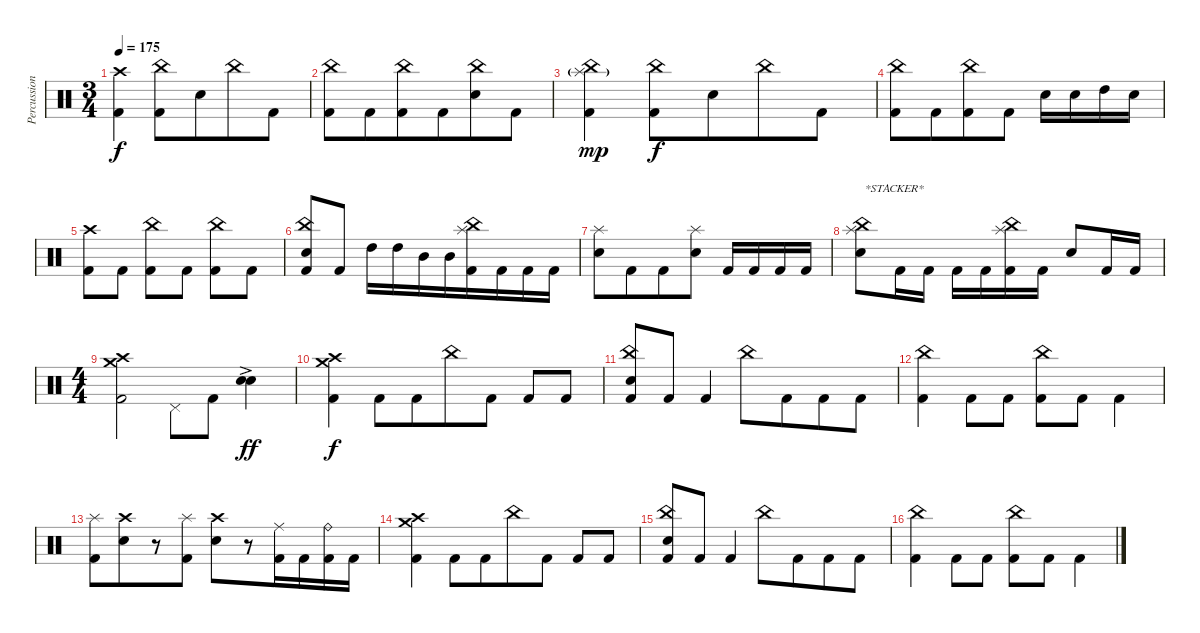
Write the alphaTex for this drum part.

\track ("Percussion" "Percussion") {instrument percussion bank 7}
\staff {score}
\articulation defaults
\ts (3 4)
\tempo 175
\clef neutral
\ks c
("Crash high (hit)" "Kick (hit) 2").4{dy f beam merge} ("China (hit)" "Kick (hit) 2").8 "Electric Snare (hit)".8{beam merge} "China (hit)".8{beam merge} "Kick (hit) 2".8 |
("China (hit)" "Kick (hit) 2").8 "Kick (hit) 2".8{beam merge} ("China (hit)" "Kick (hit) 2").8{beam merge} "Kick (hit) 2".8{beam merge} ("China (hit)" "Electric Snare (hit)").8{beam merge} "Kick (hit) 2".8 |
("China (hit)" "Splash (hit)"{g} "Kick (hit) 2").4{dy mp beam merge} ("China (hit)" "Kick (hit) 2").8{dy f} "Electric Snare (hit)".8{beam merge} "China (hit)".8{beam merge} "Kick (hit) 2".8 |
("China (hit)" "Kick (hit) 2").8 "Kick (hit) 2".8{beam merge} ("China (hit)" "Kick (hit) 2").8{beam merge} "Kick (hit) 2".8 "Electric Snare (hit)".16 "Electric Snare (hit)".16 "High Tom (hit)".16 "Electric Snare (hit)".16 |
("Crash high (hit)" "Kick (hit) 2").8 "Kick (hit) 2".8 ("China (hit)" "Kick (hit) 2").8{beam merge} "Kick (hit) 2".8 ("China (hit)" "Kick (hit) 2").8 "Kick (hit) 2".8 |
("China (hit)" "Electric Snare (hit)" "Kick (hit) 2").8 "Kick (hit) 2".8 "High Tom (hit)".16{beam merge} "High Tom (hit)".16{beam merge} "Mid Tom (hit)".16{beam merge} "Mid Tom (hit)".16{beam merge} ("China (hit)" "Splash (hit)" "Kick (hit) 2").16{beam merge} "Kick (hit) 2".16{beam merge} "Kick (hit) 2".16 "Kick (hit) 2".16 |
("Splash (hit)" "Electric Snare (hit)").8 "Kick (hit) 2".8{beam merge} "Kick (hit) 2".8{beam merge} ("Splash (hit)" "Electric Snare (hit)").8 "Kick (hit) 2".16{beam merge} "Kick (hit) 2".16 "Kick (hit) 2".16 "Kick (hit) 2".16 |
("China (hit)" "Splash (hit)" "Electric Snare (hit)").8{txt "*STACKER*" beam merge} "Kick (hit) 2".16 "Kick (hit) 2".16 "Kick (hit) 2".16{beam merge} "Kick (hit) 2".16{beam merge} ("China (hit)" "Splash (hit)" "Kick (hit) 2").16 "Kick (hit) 2".16 "Electric Snare (hit)".8 "Kick (hit) 2".16 "Kick (hit) 2".16 |
\ts (4 4)
("Crash medium (hit)" "Crash high (hit)" "Kick (hit) 2").2{beam merge} "Pedal Hi-Hat (hit)".8{beam merge} "Kick (hit) 2".8 ("Electric Snare (hit)" "Electric Snare (hit)"{ac}).4{bd 120 dy ff} |
("Crash medium (hit)" "Crash high (hit)" "Kick (hit) 2").4{dy f} "Kick (hit) 2".8{beam merge} "Kick (hit) 2".8{beam merge} "China (hit)".8{beam merge} "Kick (hit) 2".8 "Kick (hit) 2".8{beam merge} "Kick (hit) 2".8 |
("China (hit)" "Electric Snare (hit)" "Kick (hit) 2").8 "Kick (hit) 2".8 "Kick (hit) 2".4 "China (hit)".8 "Kick (hit) 2".8{beam merge} "Kick (hit) 2".8{beam merge} "Kick (hit) 2".8 |
("China (hit)" "Kick (hit) 2").4{beam merge} "Kick (hit) 2".8{beam merge} "Kick (hit) 2".8 ("China (hit)" "Kick (hit) 2").8{beam merge} "Kick (hit) 2".8{beam merge} "Kick (hit) 2".4 |
("Splash (hit)" "Kick (hit) 2").8{beam merge} ("Crash high (hit)" "Electric Snare (hit)").8{beam merge} r.8 ("Splash (hit)" "Kick (hit) 2").8 ("Crash high (hit)" "Electric Snare (hit)").8{beam merge} r.8{beam merge} ("Ride (middle)" "Kick (hit) 2").16 "Kick (hit) 2".16 ("Ride (bell)" "Kick (hit) 2").16{beam merge} "Kick (hit) 2".16 |
("Crash medium (hit)" "Crash high (hit)" "Kick (hit) 2").4 "Kick (hit) 2".8{beam merge} "Kick (hit) 2".8{beam merge} "China (hit)".8{beam merge} "Kick (hit) 2".8 "Kick (hit) 2".8{beam merge} "Kick (hit) 2".8 |
("China (hit)" "Electric Snare (hit)" "Kick (hit) 2").8 "Kick (hit) 2".8 "Kick (hit) 2".4 "China (hit)".8 "Kick (hit) 2".8{beam merge} "Kick (hit) 2".8{beam merge} "Kick (hit) 2".8 |
("China (hit)" "Kick (hit) 2").4{beam merge} "Kick (hit) 2".8{beam merge} "Kick (hit) 2".8 ("China (hit)" "Kick (hit) 2").8{beam merge} "Kick (hit) 2".8{beam merge} "Kick (hit) 2".4
